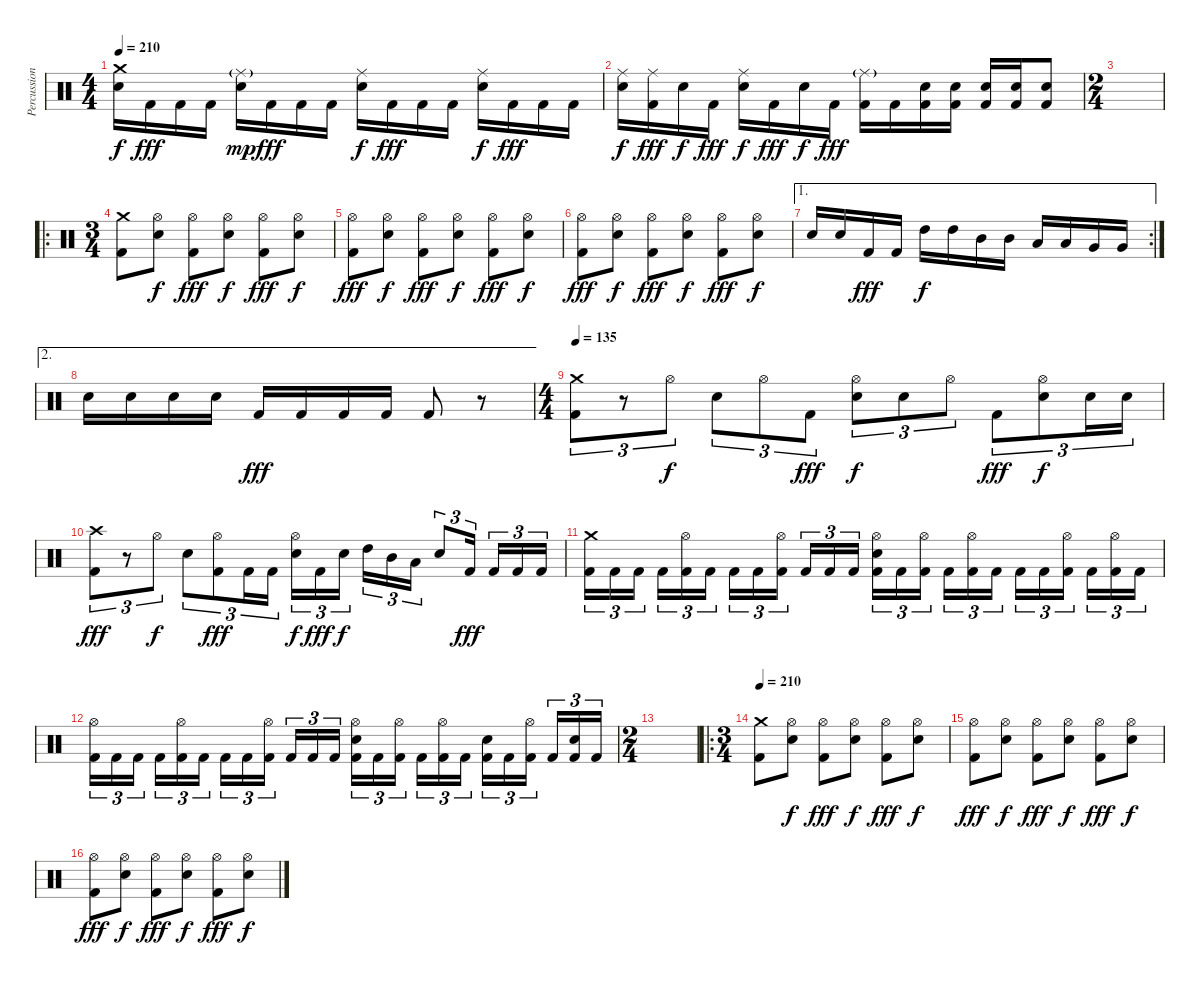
\track ("Percussions" "Percussion") {instrument percussion}
\staff {score}
\articulation defaults
\ts (4 4)
\tempo 210
\clef neutral
\ks c
("Crash medium (hit)" "Electric Snare (hit)").16{dy f} "Kick (hit) 2".16{dy fff} "Kick (hit) 2".16 "Kick (hit) 2".16 ("Ride (middle)"{g} "Electric Snare (hit)").16{dy mp} "Kick (hit) 2".16{dy fff} "Kick (hit) 2".16 "Kick (hit) 2".16 ("Ride (middle)" "Electric Snare (hit)").16{dy f} "Kick (hit) 2".16{dy fff} "Kick (hit) 2".16 "Kick (hit) 2".16 ("Ride (middle)" "Electric Snare (hit)").16{dy f} "Kick (hit) 2".16{dy fff} "Kick (hit) 2".16 "Kick (hit) 2".16 |
("Ride (middle)" "Electric Snare (hit)").16{dy f} ("Ride (middle)" "Kick (hit) 2").16{dy fff} "Electric Snare (hit)".16{dy f} "Kick (hit) 2".16{dy fff} ("Ride (middle)" "Electric Snare (hit)").16{dy f} "Kick (hit) 2".16{dy fff} "Electric Snare (hit)".16{dy f} "Kick (hit) 2".16{dy fff} ("Ride (middle)"{g} "Kick (hit) 2").16 "Kick (hit) 2".16 ("Electric Snare (hit)" "Kick (hit) 2").16 ("Electric Snare (hit)" "Kick (hit) 2").16 ("Electric Snare (hit)" "Kick (hit) 2").16 ("Electric Snare (hit)" "Kick (hit) 2").16 ("Electric Snare (hit)" "Kick (hit) 2").8 |
\ts (2 4)
|
\ro
\ts (3 4)
("Crash medium (hit)" "Kick (hit) 2").8 ("Hi-Hat (open)" "Electric Snare (hit)").8{dy f} ("Hi-Hat (open)" "Kick (hit) 2").8{dy fff} ("Hi-Hat (open)" "Electric Snare (hit)").8{dy f} ("Hi-Hat (open)" "Kick (hit) 2").8{dy fff} ("Hi-Hat (open)" "Electric Snare (hit)").8{dy f} |
("Hi-Hat (open)" "Kick (hit) 2").8{dy fff} ("Hi-Hat (open)" "Electric Snare (hit)").8{dy f} ("Hi-Hat (open)" "Kick (hit) 2").8{dy fff} ("Hi-Hat (open)" "Electric Snare (hit)").8{dy f} ("Hi-Hat (open)" "Kick (hit) 2").8{dy fff} ("Hi-Hat (open)" "Electric Snare (hit)").8{dy f} |
("Hi-Hat (open)" "Kick (hit) 2").8{dy fff} ("Hi-Hat (open)" "Electric Snare (hit)").8{dy f} ("Hi-Hat (open)" "Kick (hit) 2").8{dy fff} ("Hi-Hat (open)" "Electric Snare (hit)").8{dy f} ("Hi-Hat (open)" "Kick (hit) 2").8{dy fff} ("Hi-Hat (open)" "Electric Snare (hit)").8{dy f} |
\ae 1
\rc 2 "Electric Snare (hit)".16 "Electric Snare (hit)".16 "Kick (hit) 2".16{dy fff} "Kick (hit) 2".16 "High Tom (hit)".16{dy f} "High Tom (hit)".16 "Mid Tom (hit)".16 "Mid Tom (hit)".16 "Low Tom (hit)".16 "Low Tom (hit)".16 "Very Low Tom (hit)".16 "Very Low Tom (hit)".16
|
\ae 2 "Electric Snare (hit)".16 "Electric Snare (hit)".16 "Electric Snare (hit)".16 "Electric Snare (hit)".16 "Kick (hit) 2".16{dy fff} "Kick (hit) 2".16 "Kick (hit) 2".16 "Kick (hit) 2".16 "Kick (hit) 2".8
r.8 |
\ts (4 4)
\tempo 135
("Crash medium (hit)" "Kick (hit) 2").8{tu (3 2)} r.8{tu (3 2)} "Hi-Hat (open)".8{tu (3 2) dy f} "Electric Snare (hit)".8{tu (3 2)} "Hi-Hat (open)".8{tu (3 2)} "Kick (hit) 2".8{tu (3 2) dy fff} ("Hi-Hat (open)" "Electric Snare (hit)").8{tu (3 2) dy f} "Electric Snare (hit)".8{tu (3 2)} "Hi-Hat (open)".8{tu (3 2)} "Kick (hit) 2".8{tu (3 2) dy fff} ("Hi-Hat (open)" "Electric Snare (hit)").8{tu (3 2) dy f} "Electric Snare (hit)".16{tu (3 2)} "Electric Snare (hit)".16{tu (3 2)} |
("Crash high (hit)" "Kick (hit) 2").8{tu (3 2) dy fff} r.8{tu (3 2)} "Hi-Hat (open)".8{tu (3 2) dy f} "Electric Snare (hit)".8{tu (3 2)} ("Hi-Hat (open)" "Kick (hit) 2").8{tu (3 2) dy fff} "Kick (hit) 2".16{tu (3 2)} "Kick (hit) 2".16{tu (3 2)} ("Hi-Hat (open)" "Electric Snare (hit)").16{tu (3 2) dy f} "Kick (hit) 2".16{tu (3 2) dy fff} "Electric Snare (hit)".16{tu (3 2) dy f beam splitsecondary} "High Tom (hit)".16{tu (3 2)} "Mid Tom (hit)".16{tu (3 2)} "Low Tom (hit)".16{tu (3 2)} "Electric Snare (hit)".8{tu (3 2)} "Kick (hit) 2".16{tu (3 2) dy fff beam splitsecondary} "Kick (hit) 2".16{tu (3 2)} "Kick (hit) 2".16{tu (3 2)} "Kick (hit) 2".16{tu (3 2)} |
("Crash medium (hit)" "Kick (hit) 2").16{tu (3 2)} "Kick (hit) 2".16{tu (3 2)} "Kick (hit) 2".16{tu (3 2) beam splitsecondary} "Kick (hit) 2".16{tu (3 2)} ("Hi-Hat (open)" "Kick (hit) 2").16{tu (3 2)} "Kick (hit) 2".16{tu (3 2)} "Kick (hit) 2".16{tu (3 2)} "Kick (hit) 2".16{tu (3 2)} ("Hi-Hat (open)" "Kick (hit) 2").16{tu (3 2) beam splitsecondary} "Kick (hit) 2".16{tu (3 2)} "Kick (hit) 2".16{tu (3 2)} "Kick (hit) 2".16{tu (3 2)} ("Hi-Hat (open)" "Electric Snare (hit)" "Kick (hit) 2").16{tu (3 2)} "Kick (hit) 2".16{tu (3 2)} ("Hi-Hat (open)" "Kick (hit) 2").16{tu (3 2) beam splitsecondary} "Kick (hit) 2".16{tu (3 2)} ("Hi-Hat (open)" "Kick (hit) 2").16{tu (3 2)} "Kick (hit) 2".16{tu (3 2)} "Kick (hit) 2".16{tu (3 2)} "Kick (hit) 2".16{tu (3 2)} ("Hi-Hat (open)" "Kick (hit) 2").16{tu (3 2) beam splitsecondary} "Kick (hit) 2".16{tu (3 2)} ("Hi-Hat (open)" "Kick (hit) 2").16{tu (3 2)} "Kick (hit) 2".16{tu (3 2)} |
("Hi-Hat (open)" "Kick (hit) 2").16{tu (3 2)} "Kick (hit) 2".16{tu (3 2)} "Kick (hit) 2".16{tu (3 2) beam splitsecondary} "Kick (hit) 2".16{tu (3 2)} ("Hi-Hat (open)" "Kick (hit) 2").16{tu (3 2)} "Kick (hit) 2".16{tu (3 2)} "Kick (hit) 2".16{tu (3 2)} "Kick (hit) 2".16{tu (3 2)} ("Hi-Hat (open)" "Kick (hit) 2").16{tu (3 2) beam splitsecondary} "Kick (hit) 2".16{tu (3 2)} "Kick (hit) 2".16{tu (3 2)} "Kick (hit) 2".16{tu (3 2)} ("Hi-Hat (open)" "Electric Snare (hit)" "Kick (hit) 2").16{tu (3 2)} "Kick (hit) 2".16{tu (3 2)} ("Hi-Hat (open)" "Kick (hit) 2").16{tu (3 2) beam splitsecondary} "Kick (hit) 2".16{tu (3 2)} ("Hi-Hat (open)" "Kick (hit) 2").16{tu (3 2)} "Kick (hit) 2".16{tu (3 2)} ("Electric Snare (hit)" "Kick (hit) 2").16{tu (3 2)} "Kick (hit) 2".16{tu (3 2)} ("Hi-Hat (open)" "Kick (hit) 2").16{tu (3 2) beam splitsecondary} "Kick (hit) 2".16{tu (3 2)} ("Electric Snare (hit)" "Kick (hit) 2").16{tu (3 2)} "Kick (hit) 2".16{tu (3 2)} |
\ts (2 4)
|
\ro
\ts (3 4)
\tempo 210
("Crash medium (hit)" "Kick (hit) 2").8 ("Hi-Hat (open)" "Electric Snare (hit)").8{dy f} ("Hi-Hat (open)" "Kick (hit) 2").8{dy fff} ("Hi-Hat (open)" "Electric Snare (hit)").8{dy f} ("Hi-Hat (open)" "Kick (hit) 2").8{dy fff} ("Hi-Hat (open)" "Electric Snare (hit)").8{dy f} |
("Hi-Hat (open)" "Kick (hit) 2").8{dy fff} ("Hi-Hat (open)" "Electric Snare (hit)").8{dy f} ("Hi-Hat (open)" "Kick (hit) 2").8{dy fff} ("Hi-Hat (open)" "Electric Snare (hit)").8{dy f} ("Hi-Hat (open)" "Kick (hit) 2").8{dy fff} ("Hi-Hat (open)" "Electric Snare (hit)").8{dy f} |
("Hi-Hat (open)" "Kick (hit) 2").8{dy fff} ("Hi-Hat (open)" "Electric Snare (hit)").8{dy f} ("Hi-Hat (open)" "Kick (hit) 2").8{dy fff} ("Hi-Hat (open)" "Electric Snare (hit)").8{dy f} ("Hi-Hat (open)" "Kick (hit) 2").8{dy fff} ("Hi-Hat (open)" "Electric Snare (hit)").8{dy f}
